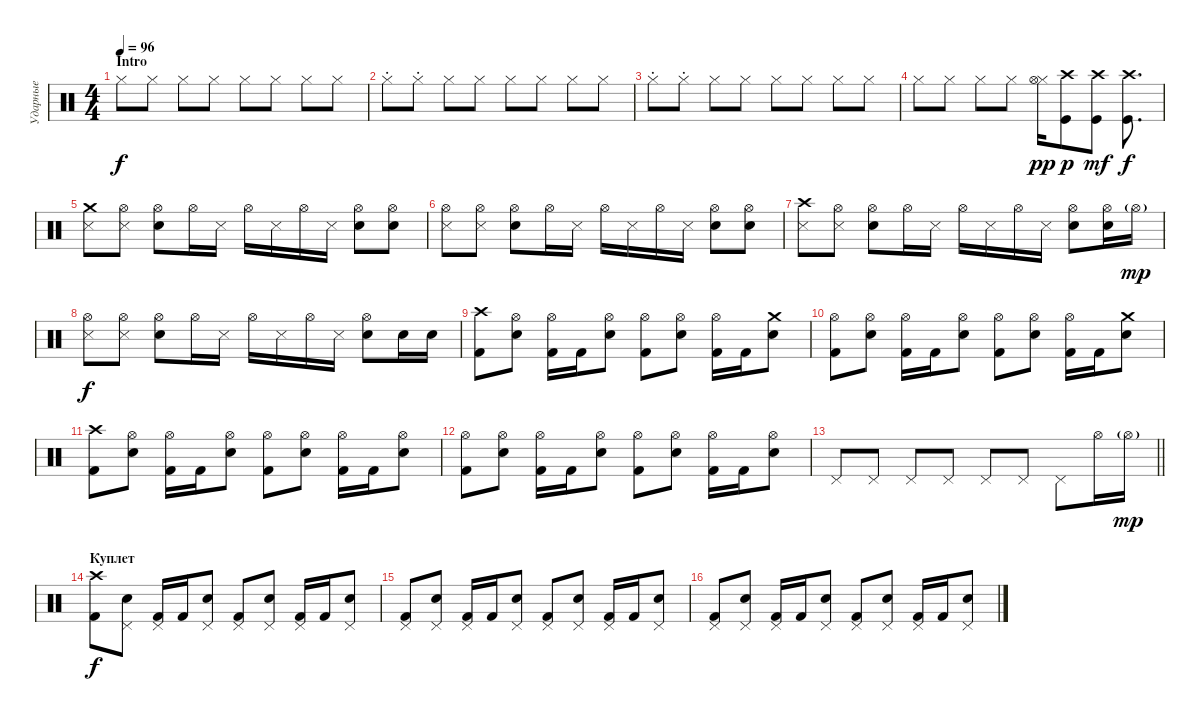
\track ("Ударные" "Ударные") {instrument percussion}
\staff {score}
\articulation defaults
\ts (4 4)
\section ("" "Intro")
\tempo 96
\clef neutral
\ks c "Hi-Hat (closed)".8{dy f} "Hi-Hat (closed)".8 "Hi-Hat (closed)".8 "Hi-Hat (closed)".8 "Hi-Hat (closed)".8 "Hi-Hat (closed)".8 "Hi-Hat (closed)".8 "Hi-Hat (closed)".8
|
"Hi-Hat (closed)"{st}.8 "Hi-Hat (closed)"{st}.8 "Hi-Hat (closed)".8 "Hi-Hat (closed)".8 "Hi-Hat (closed)".8 "Hi-Hat (closed)".8 "Hi-Hat (closed)".8 "Hi-Hat (closed)".8 |
"Hi-Hat (closed)"{st}.8 "Hi-Hat (closed)"{st}.8 "Hi-Hat (closed)".8 "Hi-Hat (closed)".8 "Hi-Hat (closed)".8 "Hi-Hat (closed)".8 "Hi-Hat (closed)".8 "Hi-Hat (closed)".8 |
"Hi-Hat (closed)".8 "Hi-Hat (closed)".8 "Hi-Hat (closed)".8 "Hi-Hat (closed)".8 ("Hi-Hat (closed)" "Hi-Hat (open)").16{dy pp} ("Kick (hit)" "Crash high (hit)").8{dy p} ("Kick (hit)" "Crash high (hit)").8{dy mf} ("Kick (hit)" "Crash high (hit)").8{d dy f} |
("Crash medium (hit)" "Metronome (hit)").8 ("Hi-Hat (open)" "Metronome (hit)").8 ("Hi-Hat (open)" "Electric Snare (hit)").8 "Hi-Hat (open)".16 "Metronome (hit)".16 "Hi-Hat (open)".16 "Metronome (hit)".16 "Hi-Hat (open)".16 "Metronome (hit)".16 ("Hi-Hat (open)" "Electric Snare (hit)").8 ("Hi-Hat (open)" "Electric Snare (hit)").8 |
("Hi-Hat (open)" "Metronome (hit)").8 ("Hi-Hat (open)" "Metronome (hit)").8 ("Hi-Hat (open)" "Electric Snare (hit)").8 "Hi-Hat (open)".16 "Metronome (hit)".16 "Hi-Hat (open)".16 "Metronome (hit)".16 "Hi-Hat (open)".16 "Metronome (hit)".16 ("Hi-Hat (open)" "Electric Snare (hit)").8 ("Hi-Hat (open)" "Electric Snare (hit)").8 |
("Crash high (hit)" "Metronome (hit)").8 ("Hi-Hat (open)" "Metronome (hit)").8 ("Hi-Hat (open)" "Electric Snare (hit)").8 "Hi-Hat (open)".16 "Metronome (hit)".16 "Hi-Hat (open)".16 "Metronome (hit)".16 "Hi-Hat (open)".16 "Metronome (hit)".16 ("Hi-Hat (open)" "Electric Snare (hit)").8 ("Hi-Hat (open)" "Electric Snare (hit)").16 "Hi-Hat (open)"{g}.16{dy mp} |
("Hi-Hat (open)" "Metronome (hit)").8{dy f} ("Hi-Hat (open)" "Metronome (hit)").8 ("Hi-Hat (open)" "Electric Snare (hit)").8 "Hi-Hat (open)".16 "Metronome (hit)".16 "Hi-Hat (open)".16 "Metronome (hit)".16 "Hi-Hat (open)".16 "Metronome (hit)".16 ("Hi-Hat (open)" "Electric Snare (hit)").8 "Electric Snare (hit)".16 "Electric Snare (hit)".16 |
("Crash high (hit)" "Kick (hit) 2").8 ("Hi-Hat (open)" "Electric Snare (hit)").8 ("Hi-Hat (open)" "Kick (hit) 2").16 "Kick (hit) 2".16 ("Hi-Hat (open)" "Electric Snare (hit)").8 ("Hi-Hat (open)" "Kick (hit) 2").8 ("Hi-Hat (open)" "Electric Snare (hit)").8 ("Hi-Hat (open)" "Kick (hit) 2").16 "Kick (hit) 2".16 ("Crash medium (hit)" "Electric Snare (hit)").8 |
("Hi-Hat (open)" "Kick (hit) 2").8 ("Hi-Hat (open)" "Electric Snare (hit)").8 ("Hi-Hat (open)" "Kick (hit) 2").16 "Kick (hit) 2".16 ("Hi-Hat (open)" "Electric Snare (hit)").8 ("Hi-Hat (open)" "Kick (hit) 2").8 ("Hi-Hat (open)" "Electric Snare (hit)").8 ("Hi-Hat (open)" "Kick (hit) 2").16 "Kick (hit) 2".16 ("Crash medium (hit)" "Electric Snare (hit)").8 |
("Crash high (hit)" "Kick (hit) 2").8 ("Hi-Hat (open)" "Electric Snare (hit)").8 ("Hi-Hat (open)" "Kick (hit) 2").16 "Kick (hit) 2".16 ("Hi-Hat (open)" "Electric Snare (hit)").8 ("Hi-Hat (open)" "Kick (hit) 2").8 ("Hi-Hat (open)" "Electric Snare (hit)").8 ("Hi-Hat (open)" "Kick (hit) 2").16 "Kick (hit) 2".16 ("Hi-Hat (open)" "Electric Snare (hit)").8 |
("Hi-Hat (open)" "Kick (hit) 2").8 ("Hi-Hat (open)" "Electric Snare (hit)").8 ("Hi-Hat (open)" "Kick (hit) 2").16 "Kick (hit) 2".16 ("Hi-Hat (open)" "Electric Snare (hit)").8 ("Hi-Hat (open)" "Kick (hit) 2").8 ("Hi-Hat (open)" "Electric Snare (hit)").8 ("Hi-Hat (open)" "Kick (hit) 2").16 "Kick (hit) 2".16 ("Hi-Hat (open)" "Electric Snare (hit)").8 |
\barLineRight lightlight "Pedal Hi-Hat (hit)".8 "Pedal Hi-Hat (hit)".8 "Pedal Hi-Hat (hit)".8 "Pedal Hi-Hat (hit)".8 "Pedal Hi-Hat (hit)".8 "Pedal Hi-Hat (hit)".8 "Pedal Hi-Hat (hit)".8 "Hi-Hat (open)".16 "Hi-Hat (open)"{g}.16{dy mp}
|
\section ("" "Куплет")
("Crash high (hit)" "Kick (hit) 2").8{dy f} ("Pedal Hi-Hat (hit)" "Electric Snare (hit)").8 ("Pedal Hi-Hat (hit)" "Kick (hit) 2").16 "Kick (hit) 2".16 ("Pedal Hi-Hat (hit)" "Electric Snare (hit)").8 ("Pedal Hi-Hat (hit)" "Kick (hit) 2").8 ("Pedal Hi-Hat (hit)" "Electric Snare (hit)").8 ("Pedal Hi-Hat (hit)" "Kick (hit) 2").16 "Kick (hit) 2".16 ("Pedal Hi-Hat (hit)" "Electric Snare (hit)").8 |
("Pedal Hi-Hat (hit)" "Kick (hit) 2").8 ("Pedal Hi-Hat (hit)" "Electric Snare (hit)").8 ("Pedal Hi-Hat (hit)" "Kick (hit) 2").16 "Kick (hit) 2".16 ("Pedal Hi-Hat (hit)" "Electric Snare (hit)").8 ("Pedal Hi-Hat (hit)" "Kick (hit) 2").8 ("Pedal Hi-Hat (hit)" "Electric Snare (hit)").8 ("Pedal Hi-Hat (hit)" "Kick (hit) 2").16 "Kick (hit) 2".16 ("Pedal Hi-Hat (hit)" "Electric Snare (hit)").8 |
("Pedal Hi-Hat (hit)" "Kick (hit) 2").8 ("Pedal Hi-Hat (hit)" "Electric Snare (hit)").8 ("Pedal Hi-Hat (hit)" "Kick (hit) 2").16 "Kick (hit) 2".16 ("Pedal Hi-Hat (hit)" "Electric Snare (hit)").8 ("Pedal Hi-Hat (hit)" "Kick (hit) 2").8 ("Pedal Hi-Hat (hit)" "Electric Snare (hit)").8 ("Pedal Hi-Hat (hit)" "Kick (hit) 2").16 "Kick (hit) 2".16 ("Pedal Hi-Hat (hit)" "Electric Snare (hit)").8
